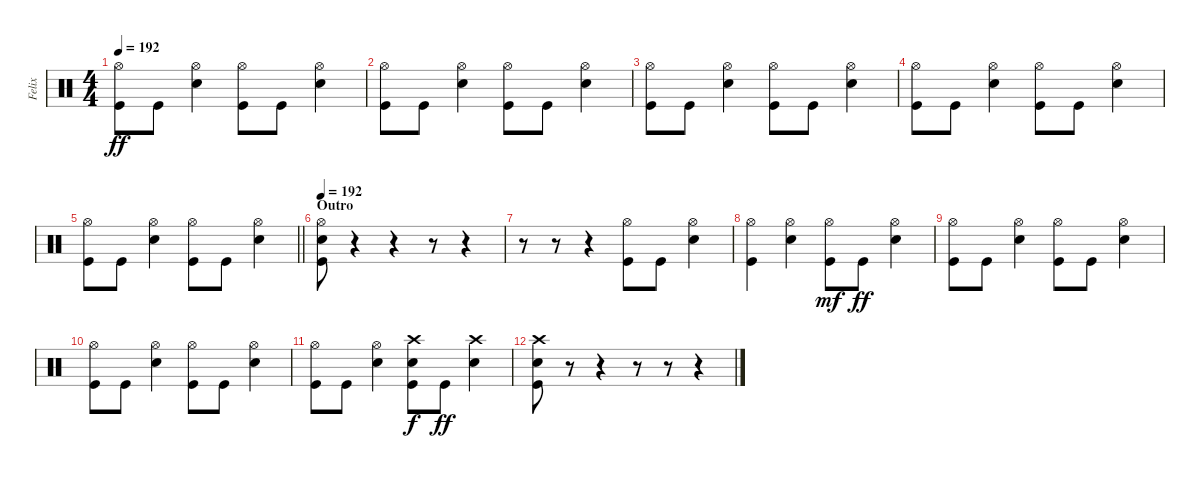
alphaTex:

\track ("Felix" "Felix") {instrument percussion}
\staff {score}
\articulation defaults
\ts (4 4)
\tempo 192
\clef neutral
\ks c
("Hi-Hat (open)" "Kick (hit)").8{dy ff} "Kick (hit)".8 ("Hi-Hat (open)" "Snare (hit) 2").4 ("Hi-Hat (open)" "Kick (hit)").8 "Kick (hit)".8 ("Hi-Hat (open)" "Snare (hit) 2").4 |
("Hi-Hat (open)" "Kick (hit)").8 "Kick (hit)".8 ("Hi-Hat (open)" "Snare (hit) 2").4 ("Hi-Hat (open)" "Kick (hit)").8 "Kick (hit)".8 ("Hi-Hat (open)" "Snare (hit) 2").4 |
("Hi-Hat (open)" "Kick (hit)").8 "Kick (hit)".8 ("Hi-Hat (open)" "Snare (hit) 2").4 ("Hi-Hat (open)" "Kick (hit)").8 "Kick (hit)".8 ("Hi-Hat (open)" "Snare (hit) 2").4 |
("Hi-Hat (open)" "Kick (hit)").8 "Kick (hit)".8 ("Hi-Hat (open)" "Snare (hit) 2").4 ("Hi-Hat (open)" "Kick (hit)").8 "Kick (hit)".8 ("Hi-Hat (open)" "Snare (hit) 2").4 |
\barLineRight lightlight
("Hi-Hat (open)" "Kick (hit)").8 "Kick (hit)".8 ("Hi-Hat (open)" "Snare (hit) 2").4 ("Hi-Hat (open)" "Kick (hit)").8 "Kick (hit)".8 ("Hi-Hat (open)" "Snare (hit) 2").4 |
\section ("" "Outro")
\tempo 192
("Hi-Hat (open)" "Snare (hit) 2" "Kick (hit)").8 r.4 r.4 r.8 r.4 |
r.8 r.8 r.4 ("Hi-Hat (open)" "Kick (hit)").8 "Kick (hit)".8 ("Hi-Hat (open)" "Snare (hit) 2").4 |
("Hi-Hat (open)" "Kick (hit)").4 ("Hi-Hat (open)" "Snare (hit) 2").4 ("Hi-Hat (open)" "Kick (hit)").8{dy mf} "Kick (hit)".8{dy ff} ("Hi-Hat (open)" "Snare (hit) 2").4 |
("Hi-Hat (open)" "Kick (hit)").8 "Kick (hit)".8 ("Hi-Hat (open)" "Snare (hit) 2").4 ("Hi-Hat (open)" "Kick (hit)").8 "Kick (hit)".8 ("Hi-Hat (open)" "Snare (hit) 2").4 |
("Hi-Hat (open)" "Kick (hit)").8 "Kick (hit)".8 ("Hi-Hat (open)" "Snare (hit) 2").4 ("Hi-Hat (open)" "Kick (hit)").8 "Kick (hit)".8 ("Hi-Hat (open)" "Snare (hit) 2").4 |
("Hi-Hat (open)" "Kick (hit)").8 "Kick (hit)".8 ("Hi-Hat (open)" "Snare (hit) 2").4 ("Crash high (hit)" "Snare (hit) 2" "Kick (hit)").8{dy f} "Kick (hit)".8{dy ff} ("Crash high (hit)" "Snare (hit) 2").4 |
("Crash high (hit)" "Snare (hit) 2" "Kick (hit)").8 r.8 r.4 r.8 r.8 r.4
